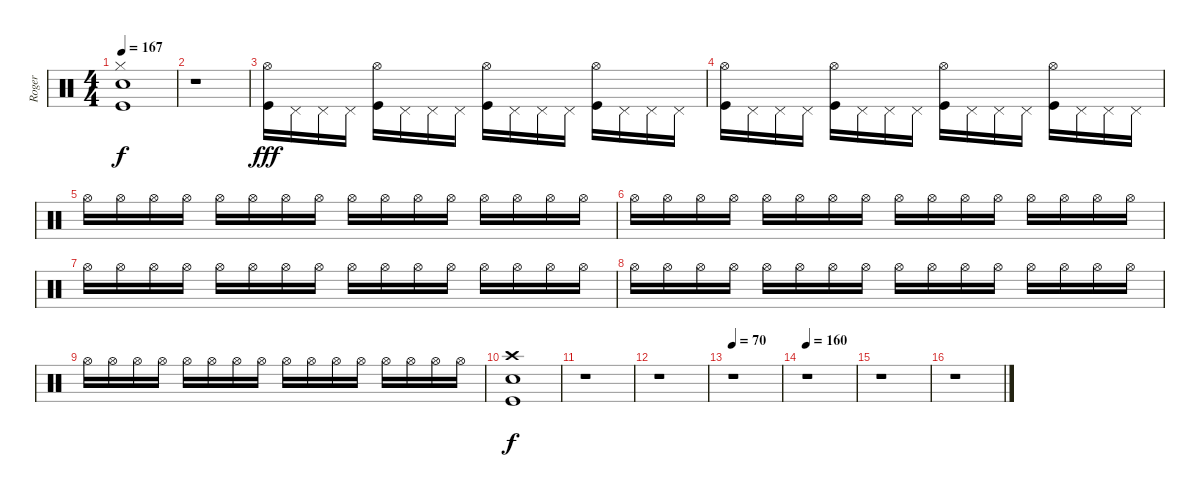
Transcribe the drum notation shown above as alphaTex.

\track ("Roger" "Roger") {instrument percussion}
\staff {score}
\articulation defaults
\ts (4 4)
\tempo 167
\clef neutral
\ks c
("Hi-Hat (closed)" "Electric Snare (hit)" "Kick (hit)").1{dy f} |
r.1 |
("Hi-Hat (open)" "Kick (hit)").16{dy fff} "Pedal Hi-Hat (hit)".16 "Pedal Hi-Hat (hit)".16 "Pedal Hi-Hat (hit)".16 ("Hi-Hat (open)" "Kick (hit)").16 "Pedal Hi-Hat (hit)".16 "Pedal Hi-Hat (hit)".16 "Pedal Hi-Hat (hit)".16 ("Hi-Hat (open)" "Kick (hit)").16 "Pedal Hi-Hat (hit)".16 "Pedal Hi-Hat (hit)".16 "Pedal Hi-Hat (hit)".16 ("Hi-Hat (open)" "Kick (hit)").16 "Pedal Hi-Hat (hit)".16 "Pedal Hi-Hat (hit)".16 "Pedal Hi-Hat (hit)".16 |
("Hi-Hat (open)" "Kick (hit)").16 "Pedal Hi-Hat (hit)".16 "Pedal Hi-Hat (hit)".16 "Pedal Hi-Hat (hit)".16 ("Hi-Hat (open)" "Kick (hit)").16 "Pedal Hi-Hat (hit)".16 "Pedal Hi-Hat (hit)".16 "Pedal Hi-Hat (hit)".16 ("Hi-Hat (open)" "Kick (hit)").16 "Pedal Hi-Hat (hit)".16 "Pedal Hi-Hat (hit)".16 "Pedal Hi-Hat (hit)".16 ("Hi-Hat (open)" "Kick (hit)").16 "Pedal Hi-Hat (hit)".16 "Pedal Hi-Hat (hit)".16 "Pedal Hi-Hat (hit)".16 |
"Hi-Hat (open)".16 "Hi-Hat (open)".16 "Hi-Hat (open)".16 "Hi-Hat (open)".16 "Hi-Hat (open)".16 "Hi-Hat (open)".16 "Hi-Hat (open)".16 "Hi-Hat (open)".16 "Hi-Hat (open)".16 "Hi-Hat (open)".16 "Hi-Hat (open)".16 "Hi-Hat (open)".16 "Hi-Hat (open)".16 "Hi-Hat (open)".16 "Hi-Hat (open)".16 "Hi-Hat (open)".16 |
"Hi-Hat (open)".16 "Hi-Hat (open)".16 "Hi-Hat (open)".16 "Hi-Hat (open)".16 "Hi-Hat (open)".16 "Hi-Hat (open)".16 "Hi-Hat (open)".16 "Hi-Hat (open)".16 "Hi-Hat (open)".16 "Hi-Hat (open)".16 "Hi-Hat (open)".16 "Hi-Hat (open)".16 "Hi-Hat (open)".16 "Hi-Hat (open)".16 "Hi-Hat (open)".16 "Hi-Hat (open)".16 |
"Hi-Hat (open)".16 "Hi-Hat (open)".16 "Hi-Hat (open)".16 "Hi-Hat (open)".16 "Hi-Hat (open)".16 "Hi-Hat (open)".16 "Hi-Hat (open)".16 "Hi-Hat (open)".16 "Hi-Hat (open)".16 "Hi-Hat (open)".16 "Hi-Hat (open)".16 "Hi-Hat (open)".16 "Hi-Hat (open)".16 "Hi-Hat (open)".16 "Hi-Hat (open)".16 "Hi-Hat (open)".16 |
"Hi-Hat (open)".16 "Hi-Hat (open)".16 "Hi-Hat (open)".16 "Hi-Hat (open)".16 "Hi-Hat (open)".16 "Hi-Hat (open)".16 "Hi-Hat (open)".16 "Hi-Hat (open)".16 "Hi-Hat (open)".16 "Hi-Hat (open)".16 "Hi-Hat (open)".16 "Hi-Hat (open)".16 "Hi-Hat (open)".16 "Hi-Hat (open)".16 "Hi-Hat (open)".16 "Hi-Hat (open)".16 |
"Hi-Hat (open)".16 "Hi-Hat (open)".16 "Hi-Hat (open)".16 "Hi-Hat (open)".16 "Hi-Hat (open)".16 "Hi-Hat (open)".16 "Hi-Hat (open)".16 "Hi-Hat (open)".16 "Hi-Hat (open)".16 "Hi-Hat (open)".16 "Hi-Hat (open)".16 "Hi-Hat (open)".16 "Hi-Hat (open)".16 "Hi-Hat (open)".16 "Hi-Hat (open)".16 "Hi-Hat (open)".16 |
("Kick (hit)" "Crash high (hit)" "Electric Snare (hit)").1{dy f} |
r.1 |
r.1 |
\tempo 70
r.1 |
\tempo 160
r.1 |
r.1 |
r.1
